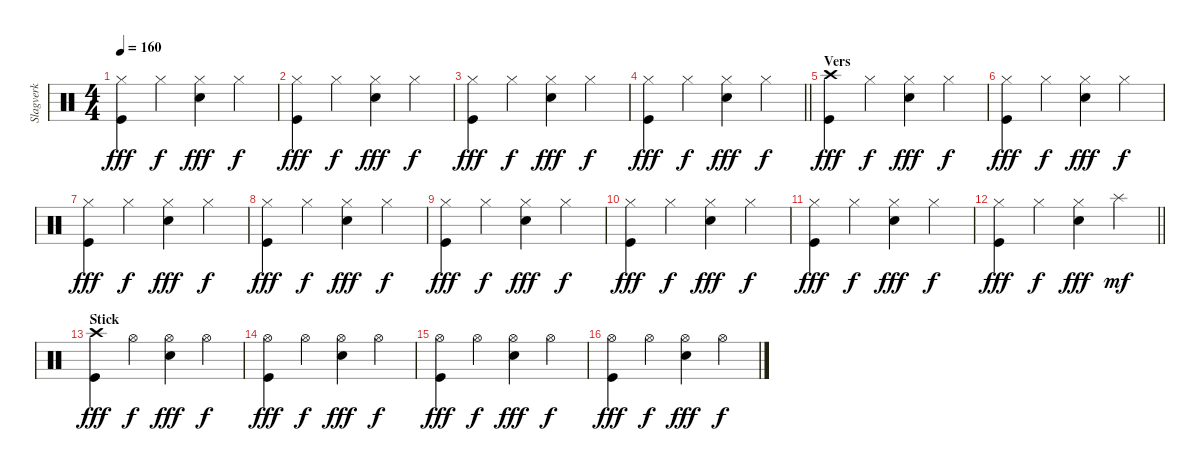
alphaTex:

\track ("Slagverk" "Slagverk") {instrument percussion}
\staff {score}
\articulation defaults
\ts (4 4)
\tempo 160
\clef neutral
\ks c
("Hi-Hat (closed)" "Kick (hit)").4{dy fff} "Hi-Hat (closed)".4{dy f} ("Hi-Hat (closed)" "Electric Snare (hit)").4{dy fff} "Hi-Hat (closed)".4{dy f} |
("Hi-Hat (closed)" "Kick (hit)").4{dy fff} "Hi-Hat (closed)".4{dy f} ("Hi-Hat (closed)" "Electric Snare (hit)").4{dy fff} "Hi-Hat (closed)".4{dy f} |
("Hi-Hat (closed)" "Kick (hit)").4{dy fff} "Hi-Hat (closed)".4{dy f} ("Hi-Hat (closed)" "Electric Snare (hit)").4{dy fff} "Hi-Hat (closed)".4{dy f} |
\barLineRight lightlight
("Hi-Hat (closed)" "Kick (hit)").4{dy fff} "Hi-Hat (closed)".4{dy f} ("Hi-Hat (closed)" "Electric Snare (hit)").4{dy fff} "Hi-Hat (closed)".4{dy f} |
\section ("" "Vers")
("Crash high (hit)" "Kick (hit)").4{dy fff} "Hi-Hat (closed)".4{dy f} ("Hi-Hat (closed)" "Electric Snare (hit)").4{dy fff} "Hi-Hat (closed)".4{dy f} |
("Hi-Hat (closed)" "Kick (hit)").4{dy fff} "Hi-Hat (closed)".4{dy f} ("Hi-Hat (closed)" "Electric Snare (hit)").4{dy fff} "Hi-Hat (closed)".4{dy f} |
("Hi-Hat (closed)" "Kick (hit)").4{dy fff} "Hi-Hat (closed)".4{dy f} ("Hi-Hat (closed)" "Electric Snare (hit)").4{dy fff} "Hi-Hat (closed)".4{dy f} |
("Hi-Hat (closed)" "Kick (hit)").4{dy fff} "Hi-Hat (closed)".4{dy f} ("Hi-Hat (closed)" "Electric Snare (hit)").4{dy fff} "Hi-Hat (closed)".4{dy f} |
("Hi-Hat (closed)" "Kick (hit)").4{dy fff} "Hi-Hat (closed)".4{dy f} ("Hi-Hat (closed)" "Electric Snare (hit)").4{dy fff} "Hi-Hat (closed)".4{dy f} |
("Hi-Hat (closed)" "Kick (hit)").4{dy fff} "Hi-Hat (closed)".4{dy f} ("Hi-Hat (closed)" "Electric Snare (hit)").4{dy fff} "Hi-Hat (closed)".4{dy f} |
("Hi-Hat (closed)" "Kick (hit)").4{dy fff} "Hi-Hat (closed)".4{dy f} ("Hi-Hat (closed)" "Electric Snare (hit)").4{dy fff} "Hi-Hat (closed)".4{dy f} |
\barLineRight lightlight
("Hi-Hat (closed)" "Kick (hit)").4{dy fff} "Hi-Hat (closed)".4{dy f} ("Hi-Hat (closed)" "Electric Snare (hit)").4{dy fff} "Splash (hit)".4{dy mf} |
\section ("" "Stick")
("Crash high (hit)" "Kick (hit)").4{dy fff} "Hi-Hat (open)".4{dy f} ("Hi-Hat (open)" "Electric Snare (hit)").4{dy fff} "Hi-Hat (open)".4{dy f} |
("Hi-Hat (open)" "Kick (hit)").4{dy fff} "Hi-Hat (open)".4{dy f} ("Hi-Hat (open)" "Electric Snare (hit)").4{dy fff} "Hi-Hat (open)".4{dy f} |
("Hi-Hat (open)" "Kick (hit)").4{dy fff} "Hi-Hat (open)".4{dy f} ("Hi-Hat (open)" "Electric Snare (hit)").4{dy fff} "Hi-Hat (open)".4{dy f} |
("Hi-Hat (open)" "Kick (hit)").4{dy fff} "Hi-Hat (open)".4{dy f} ("Hi-Hat (open)" "Electric Snare (hit)").4{dy fff} "Hi-Hat (open)".4{dy f}
